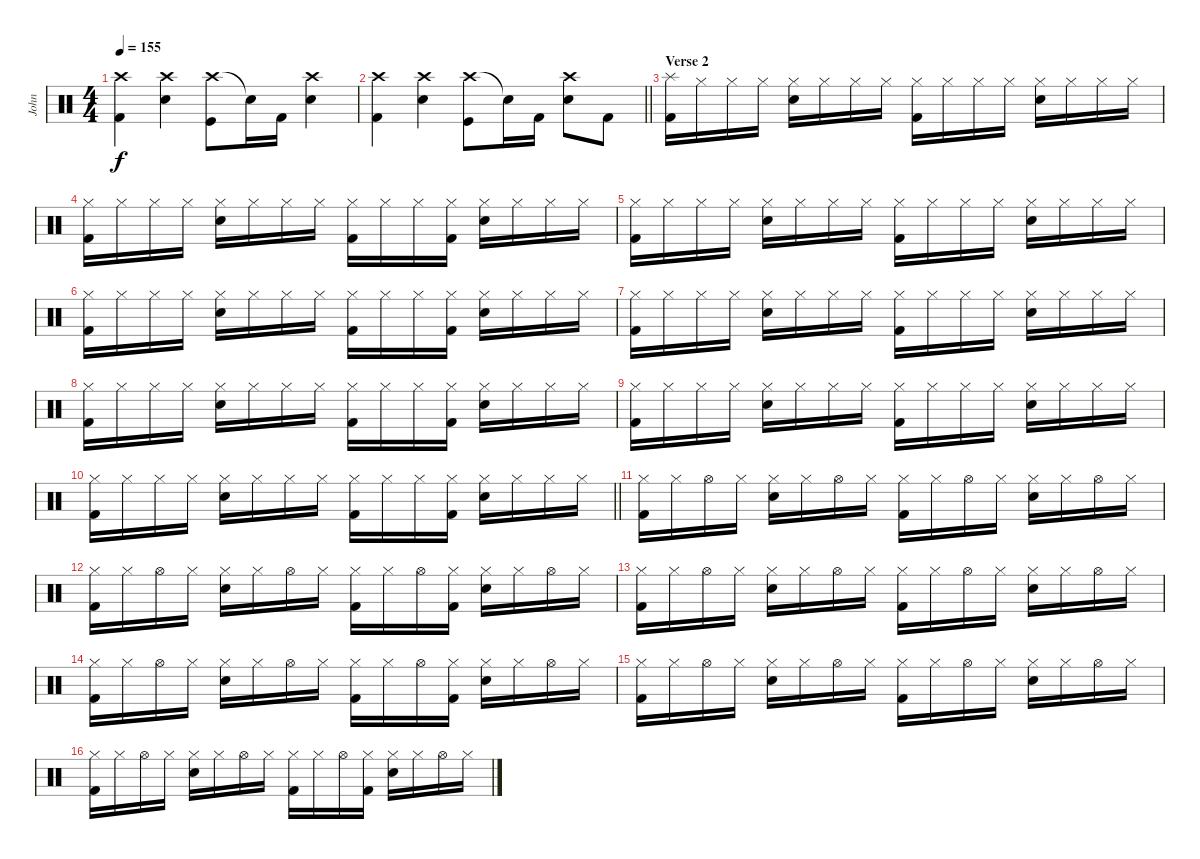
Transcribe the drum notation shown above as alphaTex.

\track ("John" "John") {instrument percussion}
\staff {score}
\articulation defaults
\ts (4 4)
\tempo 155
\clef neutral
\ks c
("Crash high (hit)" "Kick (hit) 2").4{dy f} ("Crash high (hit)" "Snare (hit) 2").4 ("Crash high (hit)" "Kick (hit)").8 "Snare (hit)"{t}.16 "Kick (hit) 2".16 ("Crash high (hit)" "Snare (hit) 2").4 |
\barLineRight lightlight
("Crash high (hit)" "Kick (hit) 2").4 ("Crash high (hit)" "Snare (hit) 2").4 ("Crash high (hit)" "Kick (hit)").8 "Snare (hit)"{t}.16 "Kick (hit) 2".16 ("Crash high (hit)" "Snare (hit) 2").8 "Kick (hit) 2".8 |
\section ("" "Verse 2")
("Splash (hit)" "Kick (hit) 2").16 "Hi-Hat (closed)".16 "Hi-Hat (closed)".16 "Hi-Hat (closed)".16 ("Hi-Hat (closed)" "Snare (hit) 2").16 "Hi-Hat (closed)".16 "Hi-Hat (closed)".16 "Hi-Hat (closed)".16 ("Hi-Hat (closed)" "Kick (hit) 2").16 "Hi-Hat (closed)".16 "Hi-Hat (closed)".16 "Hi-Hat (closed)".16 ("Hi-Hat (closed)" "Snare (hit) 2").16 "Hi-Hat (closed)".16 "Hi-Hat (closed)".16 "Hi-Hat (closed)".16 |
("Hi-Hat (closed)" "Kick (hit) 2").16 "Hi-Hat (closed)".16 "Hi-Hat (closed)".16 "Hi-Hat (closed)".16 ("Hi-Hat (closed)" "Snare (hit) 2").16 "Hi-Hat (closed)".16 "Hi-Hat (closed)".16 "Hi-Hat (closed)".16 ("Hi-Hat (closed)" "Kick (hit) 2").16 "Hi-Hat (closed)".16 "Hi-Hat (closed)".16 ("Hi-Hat (closed)" "Kick (hit) 2").16 ("Hi-Hat (closed)" "Snare (hit) 2").16 "Hi-Hat (closed)".16 "Hi-Hat (closed)".16 "Hi-Hat (closed)".16 |
("Hi-Hat (closed)" "Kick (hit) 2").16 "Hi-Hat (closed)".16 "Hi-Hat (closed)".16 "Hi-Hat (closed)".16 ("Hi-Hat (closed)" "Snare (hit) 2").16 "Hi-Hat (closed)".16 "Hi-Hat (closed)".16 "Hi-Hat (closed)".16 ("Hi-Hat (closed)" "Kick (hit) 2").16 "Hi-Hat (closed)".16 "Hi-Hat (closed)".16 "Hi-Hat (closed)".16 ("Hi-Hat (closed)" "Snare (hit) 2").16 "Hi-Hat (closed)".16 "Hi-Hat (closed)".16 "Hi-Hat (closed)".16 |
("Hi-Hat (closed)" "Kick (hit) 2").16 "Hi-Hat (closed)".16 "Hi-Hat (closed)".16 "Hi-Hat (closed)".16 ("Hi-Hat (closed)" "Snare (hit) 2").16 "Hi-Hat (closed)".16 "Hi-Hat (closed)".16 "Hi-Hat (closed)".16 ("Hi-Hat (closed)" "Kick (hit) 2").16 "Hi-Hat (closed)".16 "Hi-Hat (closed)".16 ("Hi-Hat (closed)" "Kick (hit) 2").16 ("Hi-Hat (closed)" "Snare (hit) 2").16 "Hi-Hat (closed)".16 "Hi-Hat (closed)".16 "Hi-Hat (closed)".16 |
("Hi-Hat (closed)" "Kick (hit) 2").16 "Hi-Hat (closed)".16 "Hi-Hat (closed)".16 "Hi-Hat (closed)".16 ("Hi-Hat (closed)" "Snare (hit) 2").16 "Hi-Hat (closed)".16 "Hi-Hat (closed)".16 "Hi-Hat (closed)".16 ("Hi-Hat (closed)" "Kick (hit) 2").16 "Hi-Hat (closed)".16 "Hi-Hat (closed)".16 "Hi-Hat (closed)".16 ("Hi-Hat (closed)" "Snare (hit) 2").16 "Hi-Hat (closed)".16 "Hi-Hat (closed)".16 "Hi-Hat (closed)".16 |
("Hi-Hat (closed)" "Kick (hit) 2").16 "Hi-Hat (closed)".16 "Hi-Hat (closed)".16 "Hi-Hat (closed)".16 ("Hi-Hat (closed)" "Snare (hit) 2").16 "Hi-Hat (closed)".16 "Hi-Hat (closed)".16 "Hi-Hat (closed)".16 ("Hi-Hat (closed)" "Kick (hit) 2").16 "Hi-Hat (closed)".16 "Hi-Hat (closed)".16 ("Hi-Hat (closed)" "Kick (hit) 2").16 ("Hi-Hat (closed)" "Snare (hit) 2").16 "Hi-Hat (closed)".16 "Hi-Hat (closed)".16 "Hi-Hat (closed)".16 |
("Hi-Hat (closed)" "Kick (hit) 2").16 "Hi-Hat (closed)".16 "Hi-Hat (closed)".16 "Hi-Hat (closed)".16 ("Hi-Hat (closed)" "Snare (hit) 2").16 "Hi-Hat (closed)".16 "Hi-Hat (closed)".16 "Hi-Hat (closed)".16 ("Hi-Hat (closed)" "Kick (hit) 2").16 "Hi-Hat (closed)".16 "Hi-Hat (closed)".16 "Hi-Hat (closed)".16 ("Hi-Hat (closed)" "Snare (hit) 2").16 "Hi-Hat (closed)".16 "Hi-Hat (closed)".16 "Hi-Hat (closed)".16 |
\barLineRight lightlight
("Hi-Hat (closed)" "Kick (hit) 2").16 "Hi-Hat (closed)".16 "Hi-Hat (closed)".16 "Hi-Hat (closed)".16 ("Hi-Hat (closed)" "Snare (hit) 2").16 "Hi-Hat (closed)".16 "Hi-Hat (closed)".16 "Hi-Hat (closed)".16 ("Hi-Hat (closed)" "Kick (hit) 2").16 "Hi-Hat (closed)".16 "Hi-Hat (closed)".16 ("Hi-Hat (closed)" "Kick (hit) 2").16 ("Hi-Hat (closed)" "Snare (hit) 2").16 "Hi-Hat (closed)".16 "Hi-Hat (closed)".16 "Hi-Hat (closed)".16 |
("Hi-Hat (closed)" "Kick (hit) 2").16 "Hi-Hat (closed)".16 "Hi-Hat (open)".16 "Hi-Hat (closed)".16 ("Hi-Hat (closed)" "Snare (hit) 2").16 "Hi-Hat (closed)".16 "Hi-Hat (open)".16 "Hi-Hat (closed)".16 ("Hi-Hat (closed)" "Kick (hit) 2").16 "Hi-Hat (closed)".16 "Hi-Hat (open)".16 "Hi-Hat (closed)".16 ("Hi-Hat (closed)" "Snare (hit) 2").16 "Hi-Hat (closed)".16 "Hi-Hat (open)".16 "Hi-Hat (closed)".16 |
("Hi-Hat (closed)" "Kick (hit) 2").16 "Hi-Hat (closed)".16 "Hi-Hat (open)".16 "Hi-Hat (closed)".16 ("Hi-Hat (closed)" "Snare (hit) 2").16 "Hi-Hat (closed)".16 "Hi-Hat (open)".16 "Hi-Hat (closed)".16 ("Hi-Hat (closed)" "Kick (hit) 2").16 "Hi-Hat (closed)".16 "Hi-Hat (open)".16 ("Hi-Hat (closed)" "Kick (hit) 2").16 ("Hi-Hat (closed)" "Snare (hit) 2").16 "Hi-Hat (closed)".16 "Hi-Hat (open)".16 "Hi-Hat (closed)".16 |
("Hi-Hat (closed)" "Kick (hit) 2").16 "Hi-Hat (closed)".16 "Hi-Hat (open)".16 "Hi-Hat (closed)".16 ("Hi-Hat (closed)" "Snare (hit) 2").16 "Hi-Hat (closed)".16 "Hi-Hat (open)".16 "Hi-Hat (closed)".16 ("Hi-Hat (closed)" "Kick (hit) 2").16 "Hi-Hat (closed)".16 "Hi-Hat (open)".16 "Hi-Hat (closed)".16 ("Hi-Hat (closed)" "Snare (hit) 2").16 "Hi-Hat (closed)".16 "Hi-Hat (open)".16 "Hi-Hat (closed)".16 |
("Hi-Hat (closed)" "Kick (hit) 2").16 "Hi-Hat (closed)".16 "Hi-Hat (open)".16 "Hi-Hat (closed)".16 ("Hi-Hat (closed)" "Snare (hit) 2").16 "Hi-Hat (closed)".16 "Hi-Hat (open)".16 "Hi-Hat (closed)".16 ("Hi-Hat (closed)" "Kick (hit) 2").16 "Hi-Hat (closed)".16 "Hi-Hat (open)".16 ("Hi-Hat (closed)" "Kick (hit) 2").16 ("Hi-Hat (closed)" "Snare (hit) 2").16 "Hi-Hat (closed)".16 "Hi-Hat (open)".16 "Hi-Hat (closed)".16 |
("Hi-Hat (closed)" "Kick (hit) 2").16 "Hi-Hat (closed)".16 "Hi-Hat (open)".16 "Hi-Hat (closed)".16 ("Hi-Hat (closed)" "Snare (hit) 2").16 "Hi-Hat (closed)".16 "Hi-Hat (open)".16 "Hi-Hat (closed)".16 ("Hi-Hat (closed)" "Kick (hit) 2").16 "Hi-Hat (closed)".16 "Hi-Hat (open)".16 "Hi-Hat (closed)".16 ("Hi-Hat (closed)" "Snare (hit) 2").16 "Hi-Hat (closed)".16 "Hi-Hat (open)".16 "Hi-Hat (closed)".16 |
("Hi-Hat (closed)" "Kick (hit) 2").16 "Hi-Hat (closed)".16 "Hi-Hat (open)".16 "Hi-Hat (closed)".16 ("Hi-Hat (closed)" "Snare (hit) 2").16 "Hi-Hat (closed)".16 "Hi-Hat (open)".16 "Hi-Hat (closed)".16 ("Hi-Hat (closed)" "Kick (hit) 2").16 "Hi-Hat (closed)".16 "Hi-Hat (open)".16 ("Hi-Hat (closed)" "Kick (hit) 2").16 ("Hi-Hat (closed)" "Snare (hit) 2").16 "Hi-Hat (closed)".16 "Hi-Hat (open)".16 "Hi-Hat (closed)".16
